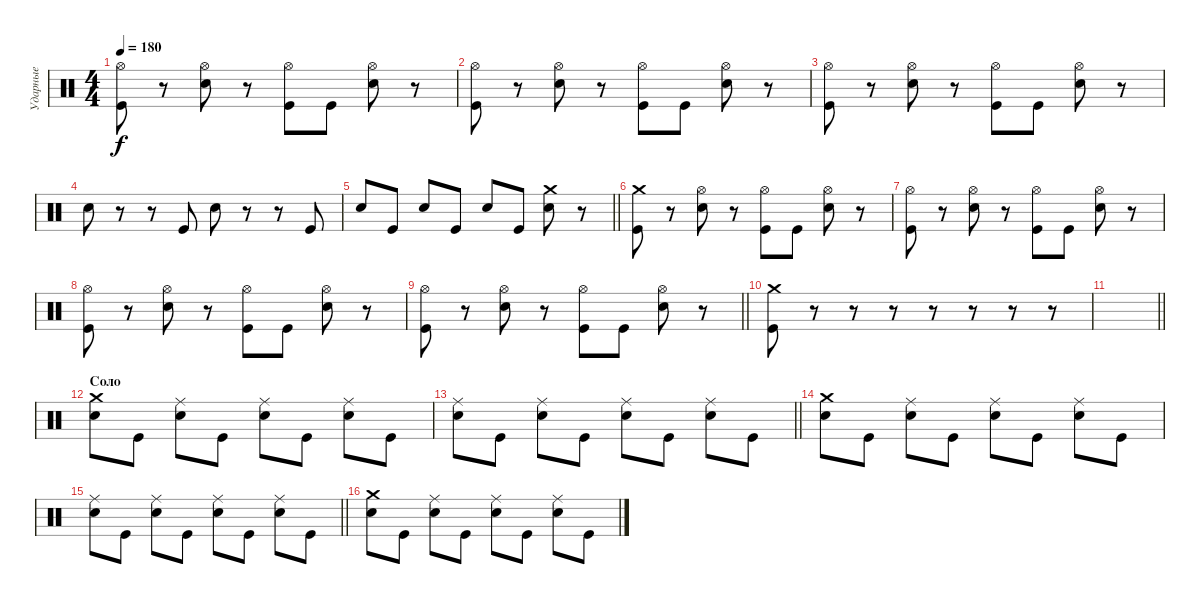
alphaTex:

\track ("Ударные" "Ударные") {instrument percussion}
\staff {score}
\articulation defaults
\ts (4 4)
\tempo 180
\clef neutral
\ks c
("Hi-Hat (open)" "Kick (hit)").8{dy f} r.8 ("Hi-Hat (open)" "Electric Snare (hit)").8 r.8 ("Hi-Hat (open)" "Kick (hit)").8 "Kick (hit)".8 ("Hi-Hat (open)" "Electric Snare (hit)").8 r.8 |
("Hi-Hat (open)" "Kick (hit)").8 r.8 ("Hi-Hat (open)" "Electric Snare (hit)").8 r.8 ("Hi-Hat (open)" "Kick (hit)").8 "Kick (hit)".8 ("Hi-Hat (open)" "Electric Snare (hit)").8 r.8 |
("Hi-Hat (open)" "Kick (hit)").8 r.8 ("Hi-Hat (open)" "Electric Snare (hit)").8 r.8 ("Hi-Hat (open)" "Kick (hit)").8 "Kick (hit)".8 ("Hi-Hat (open)" "Electric Snare (hit)").8 r.8 |
"Electric Snare (hit)".8 r.8 r.8 "Kick (hit)".8 "Electric Snare (hit)".8 r.8 r.8 "Kick (hit)".8 |
\barLineRight lightlight "Electric Snare (hit)".8 "Kick (hit)".8 "Electric Snare (hit)".8 "Kick (hit)".8 "Electric Snare (hit)".8 "Kick (hit)".8
("Crash medium (hit)" "Electric Snare (hit)").8 r.8 |
("Crash medium (hit)" "Kick (hit)").8 r.8 ("Hi-Hat (open)" "Electric Snare (hit)").8 r.8 ("Hi-Hat (open)" "Kick (hit)").8 "Kick (hit)".8 ("Hi-Hat (open)" "Electric Snare (hit)").8 r.8 |
("Hi-Hat (open)" "Kick (hit)").8 r.8 ("Hi-Hat (open)" "Electric Snare (hit)").8 r.8 ("Hi-Hat (open)" "Kick (hit)").8 "Kick (hit)".8 ("Hi-Hat (open)" "Electric Snare (hit)").8 r.8 |
("Hi-Hat (open)" "Kick (hit)").8 r.8 ("Hi-Hat (open)" "Electric Snare (hit)").8 r.8 ("Hi-Hat (open)" "Kick (hit)").8 "Kick (hit)".8 ("Hi-Hat (open)" "Electric Snare (hit)").8 r.8 |
\barLineRight lightlight
("Hi-Hat (open)" "Kick (hit)").8 r.8 ("Hi-Hat (open)" "Electric Snare (hit)").8 r.8 ("Hi-Hat (open)" "Kick (hit)").8 "Kick (hit)".8 ("Hi-Hat (open)" "Electric Snare (hit)").8 r.8 |
\section ("" " ")
("Crash medium (hit)" "Kick (hit)").8 r.8 r.8 r.8 r.8 r.8 r.8 r.8 |
\barLineRight lightlight
|
\section ("" "Соло")
("Crash medium (hit)" "Electric Snare (hit)").8 "Kick (hit)".8 ("Ride (middle)" "Electric Snare (hit)").8 "Kick (hit)".8 ("Ride (middle)" "Electric Snare (hit)").8 "Kick (hit)".8 ("Ride (middle)" "Electric Snare (hit)").8 "Kick (hit)".8 |
\barLineRight lightlight
("Ride (middle)" "Electric Snare (hit)").8 "Kick (hit)".8 ("Ride (middle)" "Electric Snare (hit)").8 "Kick (hit)".8 ("Ride (middle)" "Electric Snare (hit)").8 "Kick (hit)".8 ("Ride (middle)" "Electric Snare (hit)").8 "Kick (hit)".8 |
("Crash medium (hit)" "Electric Snare (hit)").8 "Kick (hit)".8 ("Ride (middle)" "Electric Snare (hit)").8 "Kick (hit)".8 ("Ride (middle)" "Electric Snare (hit)").8 "Kick (hit)".8 ("Ride (middle)" "Electric Snare (hit)").8 "Kick (hit)".8 |
\barLineRight lightlight
("Ride (middle)" "Electric Snare (hit)").8 "Kick (hit)".8 ("Ride (middle)" "Electric Snare (hit)").8 "Kick (hit)".8 ("Ride (middle)" "Electric Snare (hit)").8 "Kick (hit)".8 ("Ride (middle)" "Electric Snare (hit)").8 "Kick (hit)".8 |
("Crash medium (hit)" "Electric Snare (hit)").8 "Kick (hit)".8 ("Ride (middle)" "Electric Snare (hit)").8 "Kick (hit)".8 ("Ride (middle)" "Electric Snare (hit)").8 "Kick (hit)".8 ("Ride (middle)" "Electric Snare (hit)").8 "Kick (hit)".8
